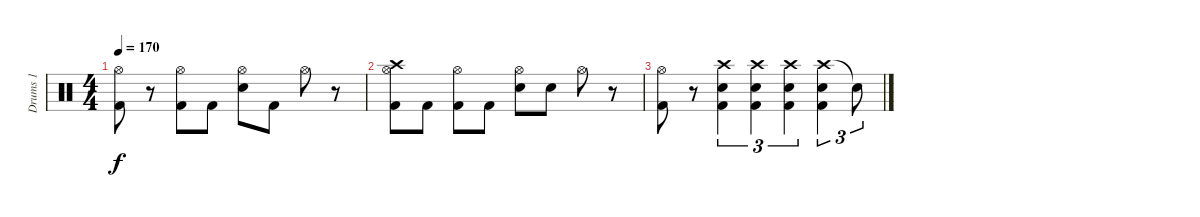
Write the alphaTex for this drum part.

\track ("Drums 1" "Drums 1") {instrument percussion}
\staff {score}
\articulation defaults
\ts (4 4)
\tempo 170
\clef neutral
\ks c
("Hi-Hat (open)" "Kick (hit) 2").8{dy f} r.8 ("Hi-Hat (open)" "Kick (hit) 2").8 "Kick (hit) 2".8 ("Hi-Hat (open)" "Snare (hit) 2").8 "Kick (hit) 2".8 "Hi-Hat (open)".8 r.8 |
("Crash high (hit)" "Hi-Hat (open)" "Kick (hit) 2").8 "Kick (hit) 2".8 ("Hi-Hat (open)" "Kick (hit) 2").8 "Kick (hit) 2".8 ("Hi-Hat (open)" "Snare (hit) 2").8 "Snare (hit) 2".8 "Hi-Hat (open)".8 r.8 |
("Hi-Hat (open)" "Kick (hit) 2").8 r.8 ("Crash high (hit)" "Snare (hit) 2" "Kick (hit) 2").4{tu (3 2)} ("Crash high (hit)" "Snare (hit) 2" "Kick (hit) 2").4{tu (3 2)} ("Crash high (hit)" "Snare (hit) 2" "Kick (hit) 2").4{tu (3 2)} ("Crash high (hit)" "Snare (hit) 2" "Kick (hit) 2").4{tu (3 2)} "Snare (hit)"{t}.8{tu (3 2)}
